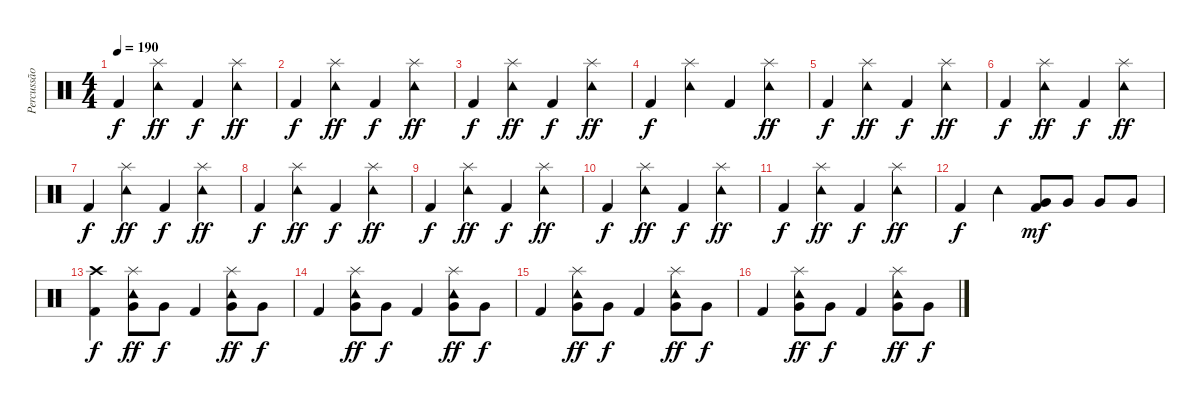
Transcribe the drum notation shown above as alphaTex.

\track ("Percussão" "Percussão") {instrument percussion}
\staff {score}
\articulation defaults
\ts (4 4)
\tempo 190
\clef neutral
\ks c "Kick (hit) 2".4{dy f}
("Splash (hit)" "Tambourine (hit)").4{dy ff} "Kick (hit) 2".4{dy f} ("Splash (hit)" "Tambourine (hit)").4{dy ff} |
"Kick (hit) 2".4{dy f} ("Splash (hit)" "Tambourine (hit)").4{dy ff} "Kick (hit) 2".4{dy f} ("Splash (hit)" "Tambourine (hit)").4{dy ff} |
"Kick (hit) 2".4{dy f} ("Splash (hit)" "Tambourine (hit)").4{dy ff} "Kick (hit) 2".4{dy f} ("Splash (hit)" "Tambourine (hit)").4{dy ff} |
"Kick (hit) 2".4{dy f} ("Tambourine (hit)" "Splash (hit)").4 "Kick (hit) 2".4 ("Tambourine (hit)" "Splash (hit)").4{dy ff} |
"Kick (hit) 2".4{dy f} ("Splash (hit)" "Tambourine (hit)").4{dy ff} "Kick (hit) 2".4{dy f} ("Splash (hit)" "Tambourine (hit)").4{dy ff} |
"Kick (hit) 2".4{dy f} ("Splash (hit)" "Tambourine (hit)").4{dy ff} "Kick (hit) 2".4{dy f} ("Splash (hit)" "Tambourine (hit)").4{dy ff} |
"Kick (hit) 2".4{dy f} ("Splash (hit)" "Tambourine (hit)").4{dy ff} "Kick (hit) 2".4{dy f} ("Splash (hit)" "Tambourine (hit)").4{dy ff} |
"Kick (hit) 2".4{dy f} ("Splash (hit)" "Tambourine (hit)").4{dy ff} "Kick (hit) 2".4{dy f} ("Splash (hit)" "Tambourine (hit)").4{dy ff} |
"Kick (hit) 2".4{dy f} ("Splash (hit)" "Tambourine (hit)").4{dy ff} "Kick (hit) 2".4{dy f} ("Splash (hit)" "Tambourine (hit)").4{dy ff} |
"Kick (hit) 2".4{dy f} ("Splash (hit)" "Tambourine (hit)").4{dy ff} "Kick (hit) 2".4{dy f} ("Splash (hit)" "Tambourine (hit)").4{dy ff} |
"Kick (hit) 2".4{dy f} ("Splash (hit)" "Tambourine (hit)").4{dy ff} "Kick (hit) 2".4{dy f} ("Splash (hit)" "Tambourine (hit)").4{dy ff} |
"Kick (hit) 2".4{dy f} "Tambourine (hit)".4 ("Very Low Tom (hit)" "Kick (hit) 2").8{dy mf} "Very Low Tom (hit)".8 "Very Low Tom (hit)".8 "Very Low Tom (hit)".8 |
("Crash high (hit)" "Kick (hit) 2").4{dy f} ("Splash (hit)" "Tambourine (hit)" "Very Low Tom (hit)").8{dy ff} "Very Low Tom (hit)".8{dy f} "Kick (hit) 2".4 ("Splash (hit)" "Tambourine (hit)" "Very Low Tom (hit)").8{dy ff} "Very Low Tom (hit)".8{dy f} |
"Kick (hit) 2".4 ("Splash (hit)" "Tambourine (hit)" "Very Low Tom (hit)").8{dy ff} "Very Low Tom (hit)".8{dy f} "Kick (hit) 2".4 ("Splash (hit)" "Tambourine (hit)" "Very Low Tom (hit)").8{dy ff} "Very Low Tom (hit)".8{dy f} |
"Kick (hit) 2".4 ("Splash (hit)" "Tambourine (hit)" "Very Low Tom (hit)").8{dy ff} "Very Low Tom (hit)".8{dy f} "Kick (hit) 2".4 ("Splash (hit)" "Tambourine (hit)" "Very Low Tom (hit)").8{dy ff} "Very Low Tom (hit)".8{dy f} |
"Kick (hit) 2".4 ("Splash (hit)" "Tambourine (hit)" "Very Low Tom (hit)").8{dy ff} "Very Low Tom (hit)".8{dy f} "Kick (hit) 2".4 ("Splash (hit)" "Tambourine (hit)" "Very Low Tom (hit)").8{dy ff} "Very Low Tom (hit)".8{dy f}
